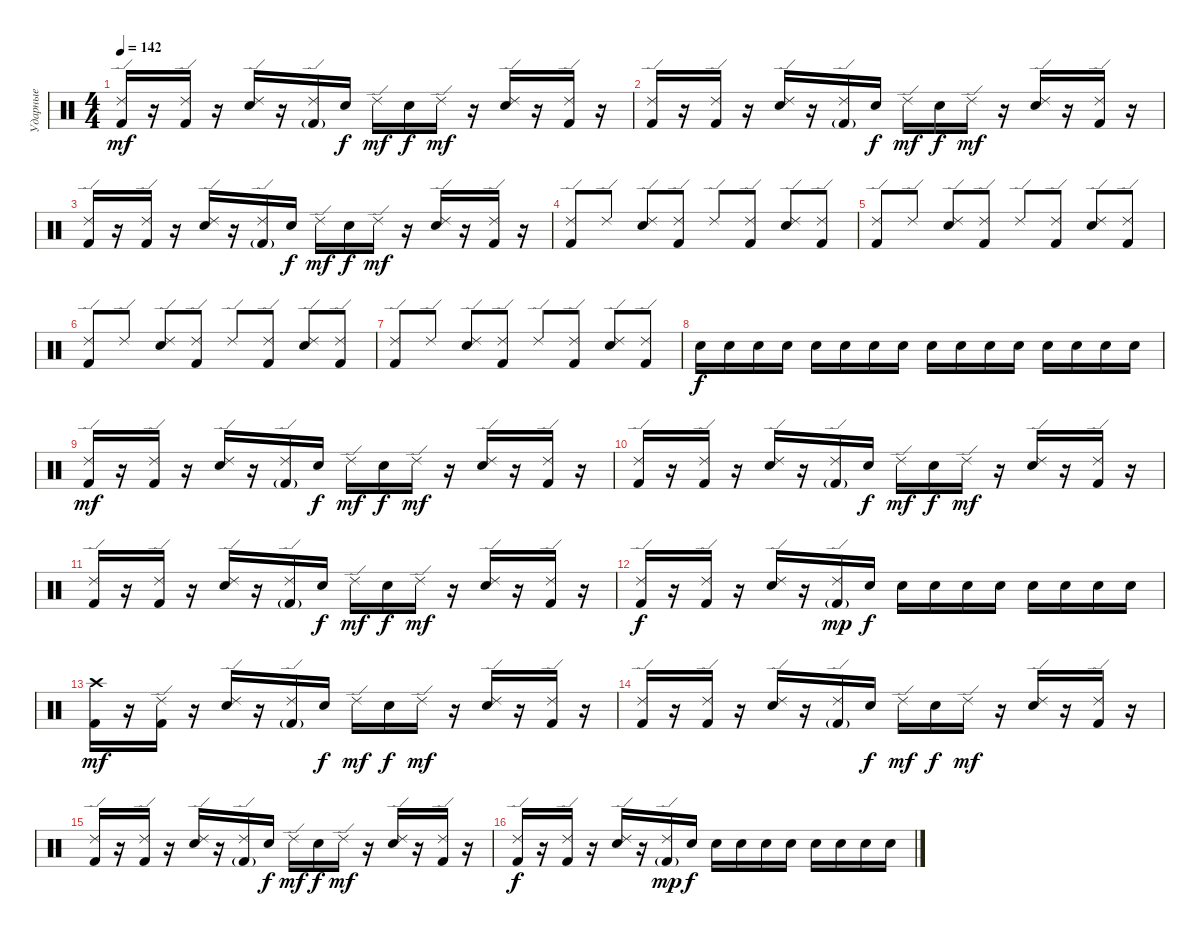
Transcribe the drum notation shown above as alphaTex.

\track ("Ударные" "Ударные") {instrument percussion}
\staff {score}
\articulation defaults
\ts (4 4)
\tempo 142
\clef neutral
\ks c
("Kick (hit) 2" "Ride (edge) 2").16{dy mf} r.16 ("Kick (hit) 2" "Ride (edge) 2").16 r.16 ("Electric Snare (hit)" "Ride (edge) 2").16 r.16 ("Kick (hit) 2"{g} "Ride (edge) 2").16 "Electric Snare (hit)".16{dy f} "Ride (edge) 2".16{dy mf} "Electric Snare (hit)".16{dy f} "Ride (edge) 2".16{dy mf} r.16 ("Electric Snare (hit)" "Ride (edge) 2").16 r.16 ("Kick (hit) 2" "Ride (edge) 2").16 r.16 |
("Kick (hit) 2" "Ride (edge) 2").16 r.16 ("Kick (hit) 2" "Ride (edge) 2").16 r.16 ("Electric Snare (hit)" "Ride (edge) 2").16 r.16 ("Kick (hit) 2"{g} "Ride (edge) 2").16 "Electric Snare (hit)".16{dy f} "Ride (edge) 2".16{dy mf} "Electric Snare (hit)".16{dy f} "Ride (edge) 2".16{dy mf} r.16 ("Electric Snare (hit)" "Ride (edge) 2").16 r.16 ("Kick (hit) 2" "Ride (edge) 2").16 r.16 |
("Kick (hit) 2" "Ride (edge) 2").16 r.16 ("Kick (hit) 2" "Ride (edge) 2").16 r.16 ("Electric Snare (hit)" "Ride (edge) 2").16 r.16 ("Kick (hit) 2"{g} "Ride (edge) 2").16 "Electric Snare (hit)".16{dy f} "Ride (edge) 2".16{dy mf} "Electric Snare (hit)".16{dy f} "Ride (edge) 2".16{dy mf} r.16 ("Electric Snare (hit)" "Ride (edge) 2").16 r.16 ("Kick (hit) 2" "Ride (edge) 2").16 r.16 |
("Kick (hit) 2" "Ride (edge) 2").8 "Ride (edge) 2".8 ("Electric Snare (hit)" "Ride (edge) 2").8 ("Kick (hit) 2" "Ride (edge) 2").8 "Ride (edge) 2".8 ("Kick (hit) 2" "Ride (edge) 2").8 ("Electric Snare (hit)" "Ride (edge) 2").8 ("Kick (hit) 2" "Ride (edge) 2").8 |
("Kick (hit) 2" "Ride (edge) 2").8 "Ride (edge) 2".8 ("Electric Snare (hit)" "Ride (edge) 2").8 ("Kick (hit) 2" "Ride (edge) 2").8 "Ride (edge) 2".8 ("Kick (hit) 2" "Ride (edge) 2").8 ("Electric Snare (hit)" "Ride (edge) 2").8 ("Kick (hit) 2" "Ride (edge) 2").8 |
("Kick (hit) 2" "Ride (edge) 2").8 "Ride (edge) 2".8 ("Electric Snare (hit)" "Ride (edge) 2").8 ("Kick (hit) 2" "Ride (edge) 2").8 "Ride (edge) 2".8 ("Kick (hit) 2" "Ride (edge) 2").8 ("Electric Snare (hit)" "Ride (edge) 2").8 ("Kick (hit) 2" "Ride (edge) 2").8 |
("Kick (hit) 2" "Ride (edge) 2").8 "Ride (edge) 2".8 ("Electric Snare (hit)" "Ride (edge) 2").8 ("Kick (hit) 2" "Ride (edge) 2").8 "Ride (edge) 2".8 ("Kick (hit) 2" "Ride (edge) 2").8 ("Electric Snare (hit)" "Ride (edge) 2").8 ("Kick (hit) 2" "Ride (edge) 2").8 |
"Electric Snare (hit)".16{dy f} "Electric Snare (hit)".16 "Electric Snare (hit)".16 "Electric Snare (hit)".16 "Electric Snare (hit)".16 "Electric Snare (hit)".16 "Electric Snare (hit)".16 "Electric Snare (hit)".16 "Electric Snare (hit)".16 "Electric Snare (hit)".16 "Electric Snare (hit)".16 "Electric Snare (hit)".16 "Electric Snare (hit)".16 "Electric Snare (hit)".16 "Electric Snare (hit)".16 "Electric Snare (hit)".16 |
("Kick (hit) 2" "Ride (edge) 2").16{dy mf} r.16 ("Kick (hit) 2" "Ride (edge) 2").16 r.16 ("Electric Snare (hit)" "Ride (edge) 2").16 r.16 ("Kick (hit) 2"{g} "Ride (edge) 2").16 "Electric Snare (hit)".16{dy f} "Ride (edge) 2".16{dy mf} "Electric Snare (hit)".16{dy f} "Ride (edge) 2".16{dy mf} r.16 ("Electric Snare (hit)" "Ride (edge) 2").16 r.16 ("Kick (hit) 2" "Ride (edge) 2").16 r.16 |
("Kick (hit) 2" "Ride (edge) 2").16 r.16 ("Kick (hit) 2" "Ride (edge) 2").16 r.16 ("Electric Snare (hit)" "Ride (edge) 2").16 r.16 ("Kick (hit) 2"{g} "Ride (edge) 2").16 "Electric Snare (hit)".16{dy f} "Ride (edge) 2".16{dy mf} "Electric Snare (hit)".16{dy f} "Ride (edge) 2".16{dy mf} r.16 ("Electric Snare (hit)" "Ride (edge) 2").16 r.16 ("Kick (hit) 2" "Ride (edge) 2").16 r.16 |
("Kick (hit) 2" "Ride (edge) 2").16 r.16 ("Kick (hit) 2" "Ride (edge) 2").16 r.16 ("Electric Snare (hit)" "Ride (edge) 2").16 r.16 ("Kick (hit) 2"{g} "Ride (edge) 2").16 "Electric Snare (hit)".16{dy f} "Ride (edge) 2".16{dy mf} "Electric Snare (hit)".16{dy f} "Ride (edge) 2".16{dy mf} r.16 ("Electric Snare (hit)" "Ride (edge) 2").16 r.16 ("Kick (hit) 2" "Ride (edge) 2").16 r.16 |
("Kick (hit) 2" "Ride (edge) 2").16{dy f} r.16 ("Kick (hit) 2" "Ride (edge) 2").16 r.16 ("Electric Snare (hit)" "Ride (edge) 2").16 r.16 ("Kick (hit) 2"{g} "Ride (edge) 2").16{dy mp} "Electric Snare (hit)".16{dy f} "Electric Snare (hit)".16 "Electric Snare (hit)".16 "Electric Snare (hit)".16 "Electric Snare (hit)".16 "Electric Snare (hit)".16 "Electric Snare (hit)".16 "Electric Snare (hit)".16 "Electric Snare (hit)".16 |
("Kick (hit) 2" "Crash high (hit)").16{dy mf} r.16 ("Kick (hit) 2" "Ride (edge) 2").16 r.16 ("Electric Snare (hit)" "Ride (edge) 2").16 r.16 ("Kick (hit) 2"{g} "Ride (edge) 2").16 "Electric Snare (hit)".16{dy f} "Ride (edge) 2".16{dy mf} "Electric Snare (hit)".16{dy f} "Ride (edge) 2".16{dy mf} r.16 ("Electric Snare (hit)" "Ride (edge) 2").16 r.16 ("Kick (hit) 2" "Ride (edge) 2").16 r.16 |
("Kick (hit) 2" "Ride (edge) 2").16 r.16 ("Kick (hit) 2" "Ride (edge) 2").16 r.16 ("Electric Snare (hit)" "Ride (edge) 2").16 r.16 ("Kick (hit) 2"{g} "Ride (edge) 2").16 "Electric Snare (hit)".16{dy f} "Ride (edge) 2".16{dy mf} "Electric Snare (hit)".16{dy f} "Ride (edge) 2".16{dy mf} r.16 ("Electric Snare (hit)" "Ride (edge) 2").16 r.16 ("Kick (hit) 2" "Ride (edge) 2").16 r.16 |
("Kick (hit) 2" "Ride (edge) 2").16 r.16 ("Kick (hit) 2" "Ride (edge) 2").16 r.16 ("Electric Snare (hit)" "Ride (edge) 2").16 r.16 ("Kick (hit) 2"{g} "Ride (edge) 2").16 "Electric Snare (hit)".16{dy f} "Ride (edge) 2".16{dy mf} "Electric Snare (hit)".16{dy f} "Ride (edge) 2".16{dy mf} r.16 ("Electric Snare (hit)" "Ride (edge) 2").16 r.16 ("Kick (hit) 2" "Ride (edge) 2").16 r.16 |
("Kick (hit) 2" "Ride (edge) 2").16{dy f} r.16 ("Kick (hit) 2" "Ride (edge) 2").16 r.16 ("Electric Snare (hit)" "Ride (edge) 2").16 r.16 ("Kick (hit) 2"{g} "Ride (edge) 2").16{dy mp} "Electric Snare (hit)".16{dy f} "Electric Snare (hit)".16 "Electric Snare (hit)".16 "Electric Snare (hit)".16 "Electric Snare (hit)".16 "Electric Snare (hit)".16 "Electric Snare (hit)".16 "Electric Snare (hit)".16 "Electric Snare (hit)".16
